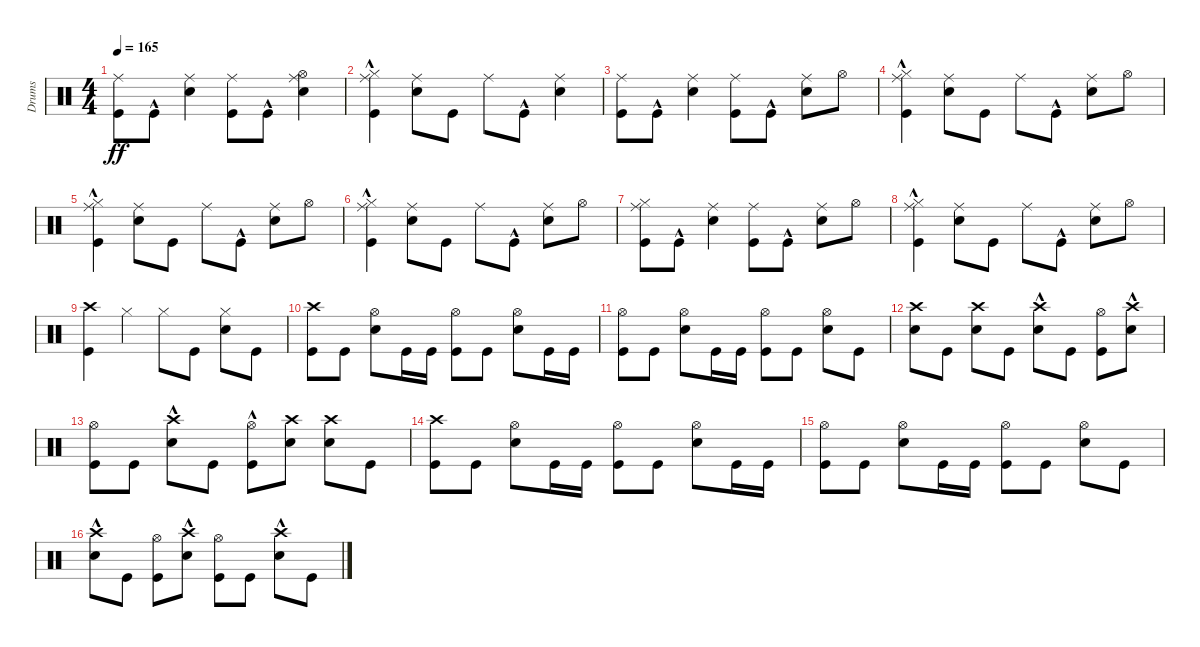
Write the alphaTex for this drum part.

\track ("Drums" "Drums") {instrument percussion}
\staff {score}
\articulation defaults
\ts (4 4)
\tempo 165
\clef neutral
\ks c
("Kick (hit)" "Ride (middle)").8{dy ff} "Kick (hit)"{hac}.8 ("Snare (hit) 2" "Ride (middle)").4 ("Kick (hit)" "Ride (middle)").8 "Kick (hit)"{hac}.8 ("Snare (hit) 2" "Hi-Hat (open)" "Ride (middle)").4 |
("Kick (hit)"{hac} "Hi-Hat (closed)" "Ride (middle)").4 ("Snare (hit) 2" "Ride (middle)").8 "Kick (hit)".8 "Ride (middle)".8 "Kick (hit)"{hac}.8 ("Snare (hit) 2" "Ride (middle)").4 |
("Kick (hit)" "Ride (middle)").8 "Kick (hit)"{hac}.8 ("Snare (hit) 2" "Ride (middle)").4 ("Kick (hit)" "Ride (middle)").8 "Kick (hit)"{hac}.8 ("Snare (hit) 2" "Ride (middle)").8 "Hi-Hat (open)".8 |
("Kick (hit)"{hac} "Hi-Hat (closed)" "Ride (middle)").4 ("Snare (hit) 2" "Ride (middle)").8 "Kick (hit)".8 "Ride (middle)".8 "Kick (hit)"{hac}.8 ("Snare (hit) 2" "Ride (middle)").8 "Hi-Hat (open)".8 |
("Kick (hit)"{hac} "Hi-Hat (closed)" "Ride (middle)").4 ("Snare (hit) 2" "Ride (middle)").8 "Kick (hit)".8 "Ride (middle)".8 "Kick (hit)"{hac}.8 ("Snare (hit) 2" "Ride (middle)").8 "Hi-Hat (open)".8 |
("Kick (hit)"{hac} "Hi-Hat (closed)" "Ride (middle)").4 ("Snare (hit) 2" "Ride (middle)").8 "Kick (hit)".8 "Ride (middle)".8 "Kick (hit)"{hac}.8 ("Snare (hit) 2" "Ride (middle)").8 "Hi-Hat (open)".8 |
("Kick (hit)" "Hi-Hat (closed)" "Ride (middle)").8 "Kick (hit)"{hac}.8 ("Snare (hit) 2" "Ride (middle)").4 ("Kick (hit)" "Ride (middle)").8 "Kick (hit)"{hac}.8 ("Snare (hit) 2" "Ride (middle)").8 "Hi-Hat (open)".8 |
("Kick (hit)"{hac} "Hi-Hat (closed)" "Ride (middle)").4 ("Snare (hit) 2" "Ride (middle)").8 "Kick (hit)".8 "Ride (middle)".8 "Kick (hit)"{hac}.8 ("Snare (hit) 2" "Ride (middle)").8 "Hi-Hat (open)".8 |
("Kick (hit)" "Crash high (hit)").4 "Hi-Hat (closed)".4 "Hi-Hat (closed)".8 "Kick (hit)".8 ("Snare (hit) 2" "Hi-Hat (closed)").8 "Kick (hit)".8 |
("Kick (hit)" "Crash high (hit)").8 "Kick (hit)".8 ("Snare (hit) 2" "Hi-Hat (open)").8 "Kick (hit)".16 "Kick (hit)".16 ("Kick (hit)" "Hi-Hat (open)").8 "Kick (hit)".8 ("Snare (hit) 2" "Hi-Hat (open)").8 "Kick (hit)".16 "Kick (hit)".16 |
("Kick (hit)" "Hi-Hat (open)").8 "Kick (hit)".8 ("Snare (hit) 2" "Hi-Hat (open)").8 "Kick (hit)".16 "Kick (hit)".16 ("Kick (hit)" "Hi-Hat (open)").8 "Kick (hit)".8 ("Snare (hit) 2" "Hi-Hat (open)").8 "Kick (hit)".8 |
("Snare (hit) 2" "Crash high (hit)").8 "Kick (hit)".8 ("Snare (hit) 2" "Crash high (hit)").8 "Kick (hit)".8 ("Snare (hit) 2"{hac} "Crash high (hit)"{hac}).8 "Kick (hit)".8 ("Kick (hit)" "Hi-Hat (open)").8 ("Snare (hit) 2"{hac} "Crash high (hit)"{hac}).8 |
("Kick (hit)" "Hi-Hat (open)").8 "Kick (hit)".8 ("Snare (hit) 2"{hac} "Crash high (hit)"{hac}).8 "Kick (hit)".8 ("Kick (hit)"{hac} "Hi-Hat (open)"{hac}).8 ("Snare (hit) 2" "Crash high (hit)").8 ("Snare (hit) 2" "Crash high (hit)").8 "Kick (hit)".8 |
("Kick (hit)" "Crash high (hit)").8 "Kick (hit)".8 ("Snare (hit) 2" "Hi-Hat (open)").8 "Kick (hit)".16 "Kick (hit)".16 ("Kick (hit)" "Hi-Hat (open)").8 "Kick (hit)".8 ("Snare (hit) 2" "Hi-Hat (open)").8 "Kick (hit)".16 "Kick (hit)".16 |
("Kick (hit)" "Hi-Hat (open)").8 "Kick (hit)".8 ("Snare (hit) 2" "Hi-Hat (open)").8 "Kick (hit)".16 "Kick (hit)".16 ("Kick (hit)" "Hi-Hat (open)").8 "Kick (hit)".8 ("Snare (hit) 2" "Hi-Hat (open)").8 "Kick (hit)".8 |
("Snare (hit) 2"{hac} "Crash high (hit)"{hac}).8 "Kick (hit)".8 ("Kick (hit)" "Hi-Hat (open)").8 ("Snare (hit) 2"{hac} "Crash high (hit)"{hac}).8 ("Kick (hit)" "Hi-Hat (open)").8 "Kick (hit)".8 ("Snare (hit) 2"{hac} "Crash high (hit)"{hac}).8 "Kick (hit)".8
